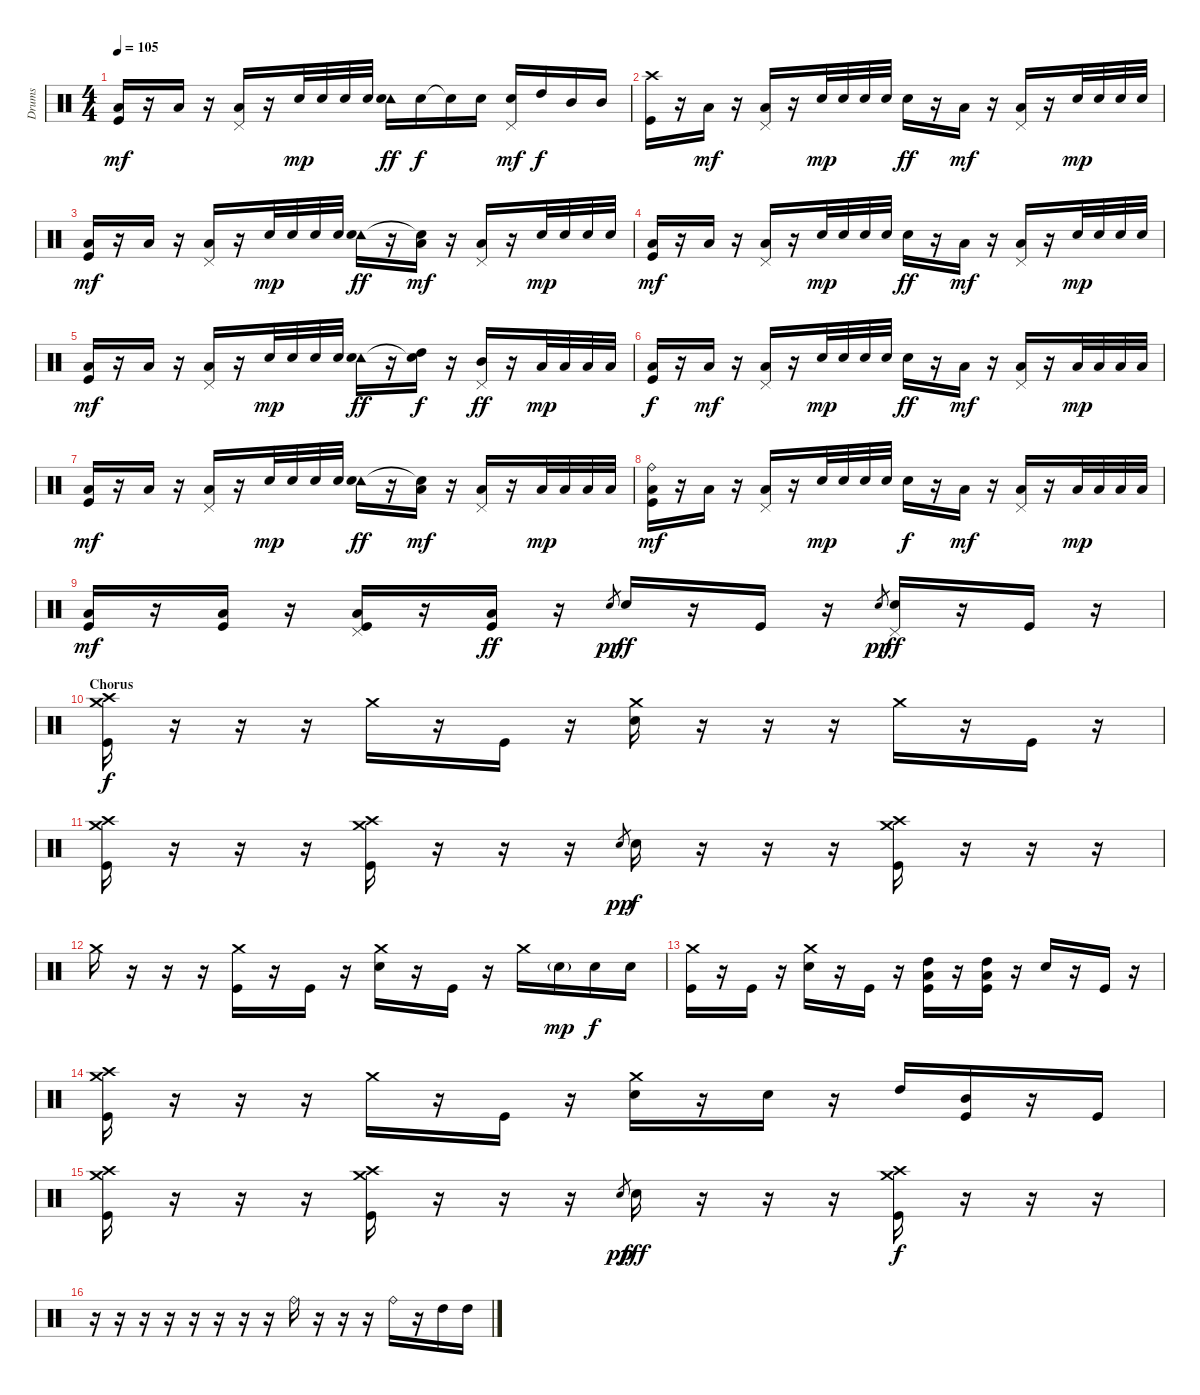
\track ("Drums" "Drums") {instrument percussion}
\staff {score}
\articulation defaults
\ts (4 4)
\tempo 105
\clef neutral
\ks c
("Low Tom (hit)" "Kick (hit)").16{dy mf} r.16 "Low Tom (hit)".16 r.16 ("Pedal Hi-Hat (hit)" "Low Tom (hit)").16 r.16 "Snare (hit) 2".32{dy mp} "Snare (hit) 2".32 "Snare (hit) 2".32 "Snare (hit) 2".32 ("Tambourine (hit)" "Snare (hit) 2").16{dy ff} "Snare (hit) 2".16{dy f} "Snare (hit)"{t}.16 "Snare (hit) 2".16 ("Pedal Hi-Hat (hit)" "Snare (hit) 2").16{dy mf} "High Tom (hit)".16{dy f} "Mid Tom (hit)".16 "Mid Tom (hit)".16 |
("Crash high (hit)" "Kick (hit)").16 r.16 "Low Tom (hit)".16{dy mf} r.16 ("Pedal Hi-Hat (hit)" "Low Tom (hit)").16 r.16 "Snare (hit) 2".32{dy mp} "Snare (hit) 2".32 "Snare (hit) 2".32 "Snare (hit) 2".32 "Snare (hit) 2".16{dy ff} r.16 "Low Tom (hit)".16{dy mf} r.16 ("Pedal Hi-Hat (hit)" "Low Tom (hit)").16 r.16 "Snare (hit) 2".32{dy mp} "Snare (hit) 2".32 "Snare (hit) 2".32 "Snare (hit) 2".32 |
("Low Tom (hit)" "Kick (hit)").16{dy mf} r.16 "Low Tom (hit)".16 r.16 ("Pedal Hi-Hat (hit)" "Low Tom (hit)").16 r.16 "Snare (hit) 2".32{dy mp} "Snare (hit) 2".32 "Snare (hit) 2".32 "Snare (hit) 2".32 ("Tambourine (hit)" "Snare (hit) 2").16{dy ff} r.16 ("Snare (hit)"{t} "Low Tom (hit)").16{dy mf} r.16 ("Pedal Hi-Hat (hit)" "Low Tom (hit)").16 r.16 "Snare (hit) 2".32{dy mp} "Snare (hit) 2".32 "Snare (hit) 2".32 "Snare (hit) 2".32 |
("Low Tom (hit)" "Kick (hit)").16{dy mf} r.16 "Low Tom (hit)".16 r.16 ("Pedal Hi-Hat (hit)" "Low Tom (hit)").16 r.16 "Snare (hit) 2".32{dy mp} "Snare (hit) 2".32 "Snare (hit) 2".32 "Snare (hit) 2".32 "Snare (hit) 2".16{dy ff} r.16 "Low Tom (hit)".16{dy mf} r.16 ("Pedal Hi-Hat (hit)" "Low Tom (hit)").16 r.16 "Snare (hit) 2".32{dy mp} "Snare (hit) 2".32 "Snare (hit) 2".32 "Snare (hit) 2".32 |
("Low Tom (hit)" "Kick (hit)").16{dy mf} r.16 "Low Tom (hit)".16 r.16 ("Pedal Hi-Hat (hit)" "Low Tom (hit)").16 r.16 "Snare (hit) 2".32{dy mp} "Snare (hit) 2".32 "Snare (hit) 2".32 "Snare (hit) 2".32 ("Tambourine (hit)" "Snare (hit) 2").16{dy ff} r.16 ("Snare (hit)"{t} "High Tom (hit)").16{dy f} r.16 ("Pedal Hi-Hat (hit)" "Mid Tom (hit)").16{dy ff} r.16 "Low Tom (hit)".32{dy mp} "Low Tom (hit)".32 "Low Tom (hit)".32 "Low Tom (hit)".32 |
("Low Tom (hit)" "Kick (hit)").16{dy f} r.16 "Low Tom (hit)".16{dy mf} r.16 ("Pedal Hi-Hat (hit)" "Low Tom (hit)").16 r.16 "Snare (hit) 2".32{dy mp} "Snare (hit) 2".32 "Snare (hit) 2".32 "Snare (hit) 2".32 "Snare (hit) 2".16{dy ff} r.16 "Low Tom (hit)".16{dy mf} r.16 ("Pedal Hi-Hat (hit)" "Low Tom (hit)").16 r.16 "Low Tom (hit)".32{dy mp} "Low Tom (hit)".32 "Low Tom (hit)".32 "Low Tom (hit)".32 |
("Low Tom (hit)" "Kick (hit)").16{dy mf} r.16 "Low Tom (hit)".16 r.16 ("Pedal Hi-Hat (hit)" "Low Tom (hit)").16 r.16 "Snare (hit) 2".32{dy mp} "Snare (hit) 2".32 "Snare (hit) 2".32 "Snare (hit) 2".32 ("Tambourine (hit)" "Snare (hit) 2").16{dy ff} r.16 ("Snare (hit)"{t} "Low Tom (hit)").16{dy mf} r.16 ("Pedal Hi-Hat (hit)" "Low Tom (hit)").16 r.16 "Low Tom (hit)".32{dy mp} "Low Tom (hit)".32 "Low Tom (hit)".32 "Low Tom (hit)".32 |
("Ride (bell)" "Low Tom (hit)" "Kick (hit)").16{dy mf} r.16 "Low Tom (hit)".16 r.16 ("Pedal Hi-Hat (hit)" "Low Tom (hit)").16 r.16 "Snare (hit) 2".32{dy mp} "Snare (hit) 2".32 "Snare (hit) 2".32 "Snare (hit) 2".32 "Snare (hit) 2".16{dy f} r.16 "Low Tom (hit)".16{dy mf} r.16 ("Pedal Hi-Hat (hit)" "Low Tom (hit)").16 r.16 "Low Tom (hit)".32{dy mp} "Low Tom (hit)".32 "Low Tom (hit)".32 "Low Tom (hit)".32 |
("Low Tom (hit)" "Kick (hit)").16{dy mf} r.16 ("Low Tom (hit)" "Kick (hit)").16 r.16 ("Pedal Hi-Hat (hit)" "Low Tom (hit)" "Kick (hit)").16 r.16 ("Low Tom (hit)" "Kick (hit)").16{dy ff} r.16 "Snare (hit) 2".8{gr dy pp} "Snare (hit) 2".16{dy ff} r.16 "Kick (hit)".16 r.16 "Snare (hit) 2".8{gr dy pp} ("Pedal Hi-Hat (hit)" "Snare (hit) 2").16{dy ff} r.16 "Kick (hit)".16 r.16 |
\section ("" "Chorus")
("Crash high (hit)" "Crash medium (hit)" "Kick (hit)").16{dy f} r.16 r.16 r.16 "Crash medium (hit)".16 r.16 "Kick (hit)".16 r.16 ("Crash medium (hit)" "Snare (hit) 2").16 r.16 r.16 r.16 "Crash medium (hit)".16 r.16 "Kick (hit)".16 r.16 |
("Crash high (hit)" "Crash medium (hit)" "Kick (hit)").16 r.16 r.16 r.16 ("Crash high (hit)" "Crash medium (hit)" "Kick (hit)").16 r.16 r.16 r.16 "Snare (hit) 2".8{gr dy pp} "Snare (hit) 2".16{dy f} r.16 r.16 r.16 ("Crash high (hit)" "Crash medium (hit)" "Kick (hit)").16 r.16 r.16 r.16 |
"Crash medium (hit)".16 r.16 r.16 r.16 ("Crash medium (hit)" "Kick (hit)").16 r.16 "Kick (hit)".16 r.16 ("Crash medium (hit)" "Snare (hit) 2").16 r.16 "Kick (hit)".16 r.16 "Crash medium (hit)".16 "Snare (hit) 2"{g}.16{dy mp} "Snare (hit) 2".16{dy f} "Snare (hit) 2".16 |
("Crash medium (hit)" "Kick (hit)").16 r.16 "Kick (hit)".16 r.16 ("Crash medium (hit)" "Snare (hit) 2").16 r.16 "Kick (hit)".16 r.16 ("High Tom (hit)" "Low Tom (hit)" "Kick (hit)").16 r.16 ("High Tom (hit)" "Low Tom (hit)" "Kick (hit)").16 r.16 "Snare (hit) 2".16 r.16 "Kick (hit)".16 r.16 |
("Crash high (hit)" "Crash medium (hit)" "Kick (hit)").16 r.16 r.16 r.16 "Crash medium (hit)".16 r.16 "Kick (hit)".16 r.16 ("Crash medium (hit)" "Snare (hit) 2").16 r.16 "Snare (hit) 2".16 r.16 "High Tom (hit)".16 ("Mid Tom (hit)" "Kick (hit)").16 r.16 "Kick (hit)".16 |
("Crash high (hit)" "Crash medium (hit)" "Kick (hit)").16 r.16 r.16 r.16 ("Crash high (hit)" "Crash medium (hit)" "Kick (hit)").16 r.16 r.16 r.16 "Snare (hit) 2".8{gr dy pp} "Snare (hit) 2".16{dy fff} r.16 r.16 r.16 ("Crash high (hit)" "Crash medium (hit)" "Kick (hit)").16{dy f} r.16 r.16 r.16 |
r.16 r.16 r.16 r.16 r.16 r.16 r.16 r.16 "Ride (bell)".16 r.16 r.16 r.16 "Ride (bell)".16 r.16 "High Tom (hit)".16 "High Tom (hit)".16
